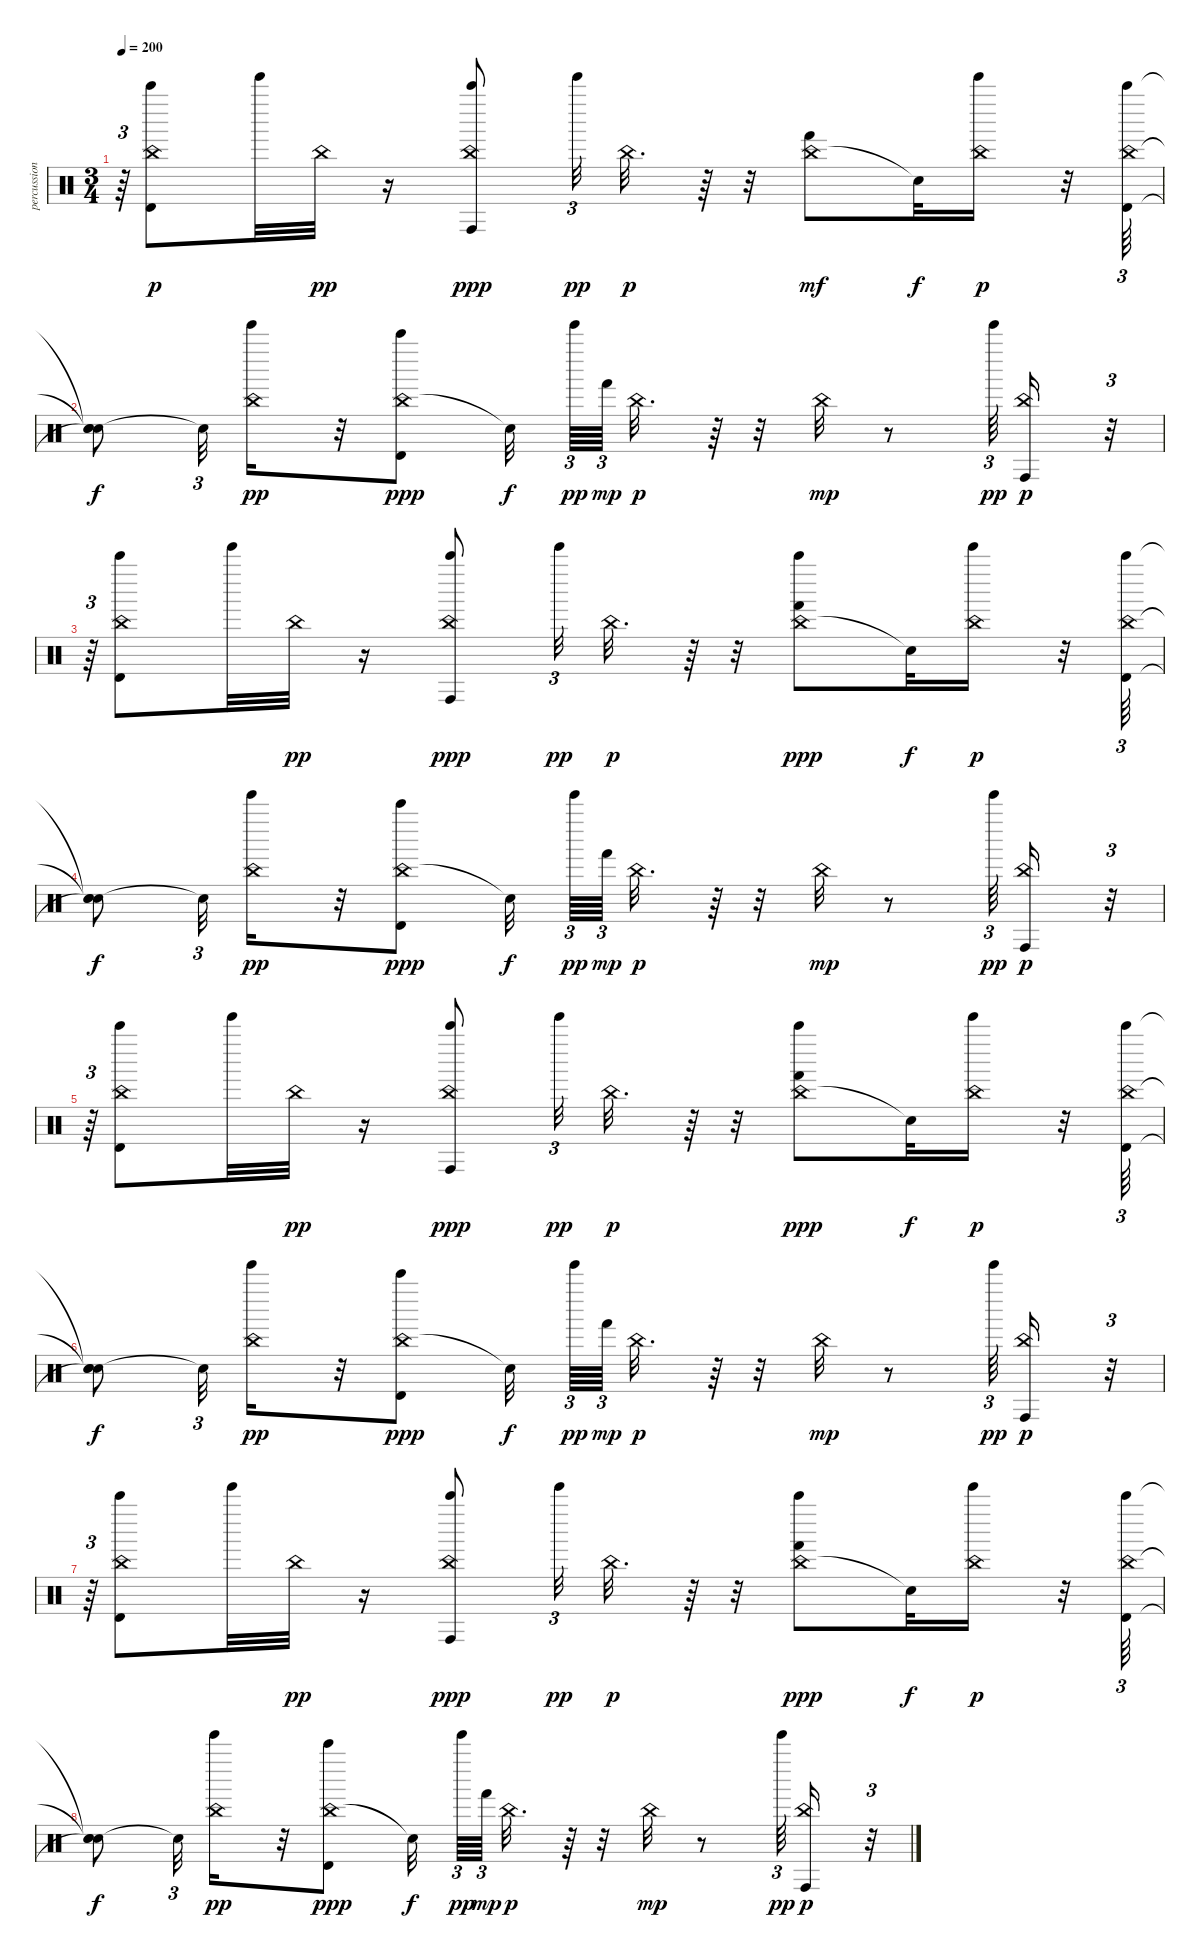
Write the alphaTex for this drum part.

\track ("percussion" "percussion") {instrument percussion}
\staff {score}
\articulation defaults
\ts (3 4)
\tempo 200
\clef neutral
\ks c
r.64{tu (3 2) dy p} ("China (hit)" "Timbale high (hit)" "Bell Tree (hit)").8 "Tinkle Bell (hit)".32 "China (hit)".32{dy pp} r.16 ("China (hit)" "Conga high (hit)" "Bell Tree (hit)").8{dy ppp} "Tinkle Bell (hit)".32{tu (3 2) dy pp} "China (hit)".32{d dy p} r.64 r.32 ("China (hit)" "Hand (hit)").8{dy mf} "Snare (hit)"{t}.32{dy f} ("Tinkle Bell (hit)" "China (hit)").16{dy p} r.32 ("China (hit)" "Timbale high (hit)" "Bell Tree (hit)").64{tu (3 2)} |
("Snare (hit)"{t} "Snare (hit)"{t} "Snare (hit)"{t}).8{dy f} "Snare (hit)"{t}.32{tu (3 2)} ("Tinkle Bell (hit)" "China (hit)").16{dy pp} r.32 ("China (hit)" "Timbale high (hit)" "Bell Tree (hit)").8{dy ppp} "Snare (hit)"{t}.32{dy f} "Tinkle Bell (hit)".64{tu (3 2) dy pp} "Hand (hit)".64{tu (3 2) dy mp} "China (hit)".32{d dy p} r.64 r.32 "China (hit)".32{dy mp} r.8 "Tinkle Bell (hit)".64{tu (3 2) dy pp} ("Conga high (hit)" "China (hit)").16{dy p} r.32{tu (3 2)} |
r.64{tu (3 2)} ("China (hit)" "Timbale high (hit)" "Bell Tree (hit)").8 "Tinkle Bell (hit)".32 "China (hit)".32{dy pp} r.16 ("China (hit)" "Conga high (hit)" "Bell Tree (hit)").8{dy ppp} "Tinkle Bell (hit)".32{tu (3 2) dy pp} "China (hit)".32{d dy p} r.64 r.32 ("China (hit)" "Hand (hit)" "Bell Tree (hit)").8{dy ppp} "Snare (hit)"{t}.32{dy f} ("Tinkle Bell (hit)" "China (hit)").16{dy p} r.32 ("China (hit)" "Timbale high (hit)" "Bell Tree (hit)").64{tu (3 2)} |
("Snare (hit)"{t} "Snare (hit)"{t} "Snare (hit)"{t}).8{dy f} "Snare (hit)"{t}.32{tu (3 2)} ("Tinkle Bell (hit)" "China (hit)").16{dy pp} r.32 ("China (hit)" "Timbale high (hit)" "Bell Tree (hit)").8{dy ppp} "Snare (hit)"{t}.32{dy f} "Tinkle Bell (hit)".64{tu (3 2) dy pp} "Hand (hit)".64{tu (3 2) dy mp} "China (hit)".32{d dy p} r.64 r.32 "China (hit)".32{dy mp} r.8 "Tinkle Bell (hit)".64{tu (3 2) dy pp} ("Conga high (hit)" "China (hit)").16{dy p} r.32{tu (3 2)} |
r.64{tu (3 2)} ("China (hit)" "Timbale high (hit)" "Bell Tree (hit)").8 "Tinkle Bell (hit)".32 "China (hit)".32{dy pp} r.16 ("China (hit)" "Conga high (hit)" "Bell Tree (hit)").8{dy ppp} "Tinkle Bell (hit)".32{tu (3 2) dy pp} "China (hit)".32{d dy p} r.64 r.32 ("China (hit)" "Hand (hit)" "Bell Tree (hit)").8{dy ppp} "Snare (hit)"{t}.32{dy f} ("Tinkle Bell (hit)" "China (hit)").16{dy p} r.32 ("China (hit)" "Timbale high (hit)" "Bell Tree (hit)").64{tu (3 2)} |
("Snare (hit)"{t} "Snare (hit)"{t} "Snare (hit)"{t}).8{dy f} "Snare (hit)"{t}.32{tu (3 2)} ("Tinkle Bell (hit)" "China (hit)").16{dy pp} r.32 ("China (hit)" "Timbale high (hit)" "Bell Tree (hit)").8{dy ppp} "Snare (hit)"{t}.32{dy f} "Tinkle Bell (hit)".64{tu (3 2) dy pp} "Hand (hit)".64{tu (3 2) dy mp} "China (hit)".32{d dy p} r.64 r.32 "China (hit)".32{dy mp} r.8 "Tinkle Bell (hit)".64{tu (3 2) dy pp} ("Conga high (hit)" "China (hit)").16{dy p} r.32{tu (3 2)} |
r.64{tu (3 2)} ("China (hit)" "Timbale high (hit)" "Bell Tree (hit)").8 "Tinkle Bell (hit)".32 "China (hit)".32{dy pp} r.16 ("China (hit)" "Conga high (hit)" "Bell Tree (hit)").8{dy ppp} "Tinkle Bell (hit)".32{tu (3 2) dy pp} "China (hit)".32{d dy p} r.64 r.32 ("China (hit)" "Hand (hit)" "Bell Tree (hit)").8{dy ppp} "Snare (hit)"{t}.32{dy f} ("Tinkle Bell (hit)" "China (hit)").16{dy p} r.32 ("China (hit)" "Timbale high (hit)" "Bell Tree (hit)").64{tu (3 2)} |
("Snare (hit)"{t} "Snare (hit)"{t} "Snare (hit)"{t}).8{dy f} "Snare (hit)"{t}.32{tu (3 2)} ("Tinkle Bell (hit)" "China (hit)").16{dy pp} r.32 ("China (hit)" "Timbale high (hit)" "Bell Tree (hit)").8{dy ppp} "Snare (hit)"{t}.32{dy f} "Tinkle Bell (hit)".64{tu (3 2) dy pp} "Hand (hit)".64{tu (3 2) dy mp} "China (hit)".32{d dy p} r.64 r.32 "China (hit)".32{dy mp} r.8 "Tinkle Bell (hit)".64{tu (3 2) dy pp} ("Conga high (hit)" "China (hit)").16{dy p} r.32{tu (3 2)}
